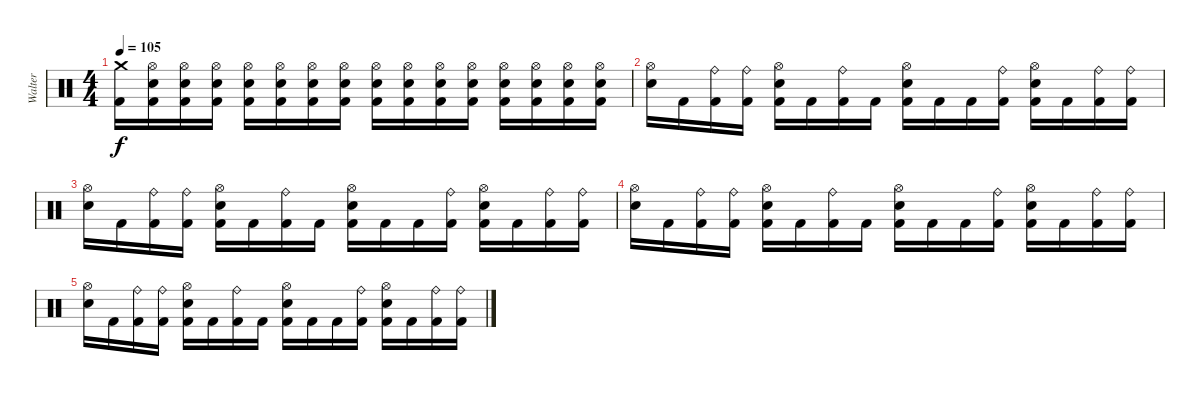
\track ("Walter" "Walter") {instrument percussion}
\staff {score}
\articulation defaults
\ts (4 4)
\tempo 105
\clef neutral
\ks c
("Kick (hit) 2" "Crash medium (hit)").16{dy f} ("Kick (hit) 2" "Electric Snare (hit)" "Hi-Hat (open)").16 ("Kick (hit) 2" "Electric Snare (hit)" "Hi-Hat (open)").16 ("Kick (hit) 2" "Electric Snare (hit)" "Hi-Hat (open)").16 ("Kick (hit) 2" "Electric Snare (hit)" "Hi-Hat (open)").16 ("Kick (hit) 2" "Electric Snare (hit)" "Hi-Hat (open)").16 ("Kick (hit) 2" "Electric Snare (hit)" "Hi-Hat (open)").16 ("Kick (hit) 2" "Electric Snare (hit)" "Hi-Hat (open)").16 ("Kick (hit) 2" "Electric Snare (hit)" "Hi-Hat (open)").16 ("Kick (hit) 2" "Electric Snare (hit)" "Hi-Hat (open)").16 ("Kick (hit) 2" "Electric Snare (hit)" "Hi-Hat (open)").16 ("Kick (hit) 2" "Electric Snare (hit)" "Hi-Hat (open)").16 ("Kick (hit) 2" "Electric Snare (hit)" "Hi-Hat (open)").16 ("Kick (hit) 2" "Electric Snare (hit)" "Hi-Hat (open)").16 ("Kick (hit) 2" "Electric Snare (hit)" "Hi-Hat (open)").16 ("Kick (hit) 2" "Electric Snare (hit)" "Hi-Hat (open)").16 |
("Hi-Hat (open)" "Electric Snare (hit)").16 "Kick (hit) 2".16 ("Ride (bell)" "Kick (hit) 2").16 ("Ride (bell)" "Kick (hit) 2").16 ("Hi-Hat (open)" "Electric Snare (hit)" "Kick (hit) 2").16 "Kick (hit) 2".16 ("Ride (bell)" "Kick (hit) 2").16 "Kick (hit) 2".16 ("Hi-Hat (open)" "Electric Snare (hit)" "Kick (hit) 2").16 "Kick (hit) 2".16 "Kick (hit) 2".16 ("Ride (bell)" "Kick (hit) 2").16 ("Hi-Hat (open)" "Electric Snare (hit)" "Kick (hit) 2").16 "Kick (hit) 2".16 ("Ride (bell)" "Kick (hit) 2").16 ("Ride (bell)" "Kick (hit) 2").16 |
("Hi-Hat (open)" "Electric Snare (hit)").16 "Kick (hit) 2".16 ("Ride (bell)" "Kick (hit) 2").16 ("Ride (bell)" "Kick (hit) 2").16 ("Hi-Hat (open)" "Electric Snare (hit)" "Kick (hit) 2").16 "Kick (hit) 2".16 ("Ride (bell)" "Kick (hit) 2").16 "Kick (hit) 2".16 ("Hi-Hat (open)" "Electric Snare (hit)" "Kick (hit) 2").16 "Kick (hit) 2".16 "Kick (hit) 2".16 ("Ride (bell)" "Kick (hit) 2").16 ("Hi-Hat (open)" "Electric Snare (hit)" "Kick (hit) 2").16 "Kick (hit) 2".16 ("Ride (bell)" "Kick (hit) 2").16 ("Ride (bell)" "Kick (hit) 2").16 |
("Hi-Hat (open)" "Electric Snare (hit)").16 "Kick (hit) 2".16 ("Ride (bell)" "Kick (hit) 2").16 ("Ride (bell)" "Kick (hit) 2").16 ("Hi-Hat (open)" "Electric Snare (hit)" "Kick (hit) 2").16 "Kick (hit) 2".16 ("Ride (bell)" "Kick (hit) 2").16 "Kick (hit) 2".16 ("Hi-Hat (open)" "Electric Snare (hit)" "Kick (hit) 2").16 "Kick (hit) 2".16 "Kick (hit) 2".16 ("Ride (bell)" "Kick (hit) 2").16 ("Hi-Hat (open)" "Electric Snare (hit)" "Kick (hit) 2").16 "Kick (hit) 2".16 ("Ride (bell)" "Kick (hit) 2").16 ("Ride (bell)" "Kick (hit) 2").16 |
("Hi-Hat (open)" "Electric Snare (hit)").16 "Kick (hit) 2".16 ("Ride (bell)" "Kick (hit) 2").16 ("Ride (bell)" "Kick (hit) 2").16 ("Hi-Hat (open)" "Electric Snare (hit)" "Kick (hit) 2").16 "Kick (hit) 2".16 ("Ride (bell)" "Kick (hit) 2").16 "Kick (hit) 2".16 ("Hi-Hat (open)" "Electric Snare (hit)" "Kick (hit) 2").16 "Kick (hit) 2".16 "Kick (hit) 2".16 ("Ride (bell)" "Kick (hit) 2").16 ("Hi-Hat (open)" "Electric Snare (hit)" "Kick (hit) 2").16 "Kick (hit) 2".16 ("Ride (bell)" "Kick (hit) 2").16 ("Ride (bell)" "Kick (hit) 2").16
